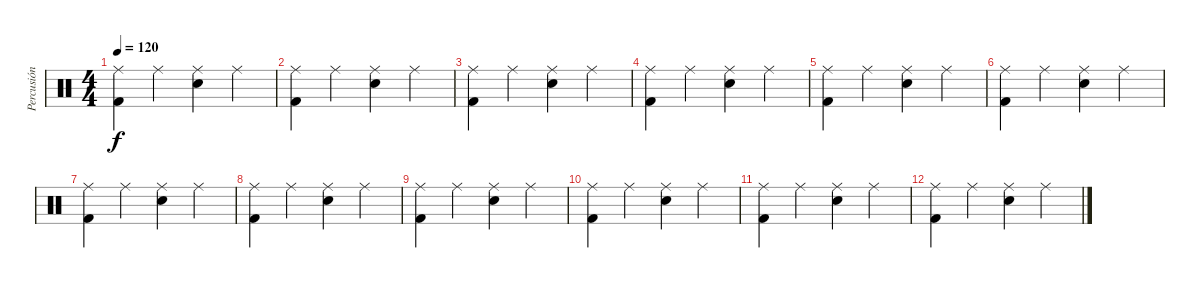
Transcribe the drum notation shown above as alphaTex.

\track ("Percusión" "Percusión") {instrument percussion}
\staff {score}
\articulation defaults
\ts (4 4)
\tempo 120
\clef neutral
\ks c
("Ride (middle)" "Kick (hit) 2").4{dy f} "Ride (middle)".4 ("Electric Snare (hit)" "Ride (middle)").4 "Ride (middle)".4 |
("Ride (middle)" "Kick (hit) 2").4 "Ride (middle)".4 ("Electric Snare (hit)" "Ride (middle)").4 "Ride (middle)".4 |
("Ride (middle)" "Kick (hit) 2").4 "Ride (middle)".4 ("Electric Snare (hit)" "Ride (middle)").4 "Ride (middle)".4 |
("Ride (middle)" "Kick (hit) 2").4 "Ride (middle)".4 ("Electric Snare (hit)" "Ride (middle)").4 "Ride (middle)".4 |
("Ride (middle)" "Kick (hit) 2").4 "Ride (middle)".4 ("Electric Snare (hit)" "Ride (middle)").4 "Ride (middle)".4 |
("Ride (middle)" "Kick (hit) 2").4 "Ride (middle)".4 ("Electric Snare (hit)" "Ride (middle)").4 "Ride (middle)".4 |
("Ride (middle)" "Kick (hit) 2").4 "Ride (middle)".4 ("Electric Snare (hit)" "Ride (middle)").4 "Ride (middle)".4 |
("Ride (middle)" "Kick (hit) 2").4 "Ride (middle)".4 ("Electric Snare (hit)" "Ride (middle)").4 "Ride (middle)".4 |
("Ride (middle)" "Kick (hit) 2").4 "Ride (middle)".4 ("Electric Snare (hit)" "Ride (middle)").4 "Ride (middle)".4 |
("Ride (middle)" "Kick (hit) 2").4 "Ride (middle)".4 ("Electric Snare (hit)" "Ride (middle)").4 "Ride (middle)".4 |
("Ride (middle)" "Kick (hit) 2").4 "Ride (middle)".4 ("Electric Snare (hit)" "Ride (middle)").4 "Ride (middle)".4 |
("Ride (middle)" "Kick (hit) 2").4 "Ride (middle)".4 ("Electric Snare (hit)" "Ride (middle)").4 "Ride (middle)".4
